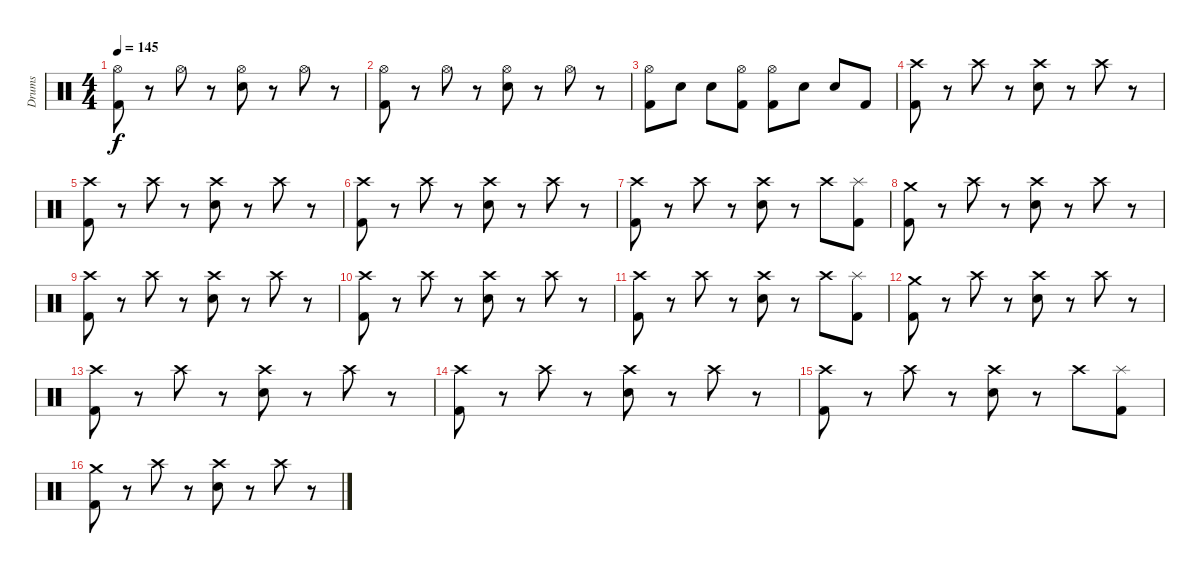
\track ("Drums" "Drums") {instrument percussion}
\staff {score}
\articulation defaults
\ts (4 4)
\tempo 145
\clef neutral
\ks c
("Hi-Hat (open)" "Kick (hit) 2").8{dy f} r.8 "Hi-Hat (open)".8 r.8 ("Hi-Hat (open)" "Electric Snare (hit)").8 r.8 "Hi-Hat (open)".8 r.8 |
("Hi-Hat (open)" "Kick (hit) 2").8 r.8 "Hi-Hat (open)".8 r.8 ("Hi-Hat (open)" "Electric Snare (hit)").8 r.8 "Hi-Hat (open)".8 r.8 |
("Hi-Hat (open)" "Kick (hit) 2").8 "Electric Snare (hit)".8 "Electric Snare (hit)".8 ("Hi-Hat (open)" "Kick (hit) 2").8 ("Hi-Hat (open)" "Kick (hit) 2").8 "Electric Snare (hit)".8 "Electric Snare (hit)".8 "Kick (hit) 2".8 |
("Crash high (hit)" "Kick (hit) 2").8 r.8 "Crash high (hit)".8 r.8 ("Crash high (hit)" "Electric Snare (hit)").8 r.8 "Crash high (hit)".8 r.8 |
("Crash high (hit)" "Kick (hit) 2").8 r.8 "Crash high (hit)".8 r.8 ("Crash high (hit)" "Electric Snare (hit)").8 r.8 "Crash high (hit)".8 r.8 |
("Crash high (hit)" "Kick (hit) 2").8 r.8 "Crash high (hit)".8 r.8 ("Crash high (hit)" "Electric Snare (hit)").8 r.8 "Crash high (hit)".8 r.8 |
("Crash high (hit)" "Kick (hit) 2").8 r.8 "Crash high (hit)".8 r.8 ("Crash high (hit)" "Electric Snare (hit)").8 r.8 "Crash high (hit)".8 ("Splash (hit)" "Kick (hit) 2").8 |
("Crash medium (hit)" "Kick (hit) 2").8 r.8 "Crash high (hit)".8 r.8 ("Crash high (hit)" "Electric Snare (hit)").8 r.8 "Crash high (hit)".8 r.8 |
("Crash high (hit)" "Kick (hit) 2").8 r.8 "Crash high (hit)".8 r.8 ("Crash high (hit)" "Electric Snare (hit)").8 r.8 "Crash high (hit)".8 r.8 |
("Crash high (hit)" "Kick (hit) 2").8 r.8 "Crash high (hit)".8 r.8 ("Crash high (hit)" "Electric Snare (hit)").8 r.8 "Crash high (hit)".8 r.8 |
("Crash high (hit)" "Kick (hit) 2").8 r.8 "Crash high (hit)".8 r.8 ("Crash high (hit)" "Electric Snare (hit)").8 r.8 "Crash high (hit)".8 ("Splash (hit)" "Kick (hit) 2").8 |
("Crash medium (hit)" "Kick (hit) 2").8 r.8 "Crash high (hit)".8 r.8 ("Crash high (hit)" "Electric Snare (hit)").8 r.8 "Crash high (hit)".8 r.8 |
("Crash high (hit)" "Kick (hit) 2").8 r.8 "Crash high (hit)".8 r.8 ("Crash high (hit)" "Electric Snare (hit)").8 r.8 "Crash high (hit)".8 r.8 |
("Crash high (hit)" "Kick (hit) 2").8 r.8 "Crash high (hit)".8 r.8 ("Crash high (hit)" "Electric Snare (hit)").8 r.8 "Crash high (hit)".8 r.8 |
("Crash high (hit)" "Kick (hit) 2").8 r.8 "Crash high (hit)".8 r.8 ("Crash high (hit)" "Electric Snare (hit)").8 r.8 "Crash high (hit)".8 ("Splash (hit)" "Kick (hit) 2").8 |
("Crash medium (hit)" "Kick (hit) 2").8 r.8 "Crash high (hit)".8 r.8 ("Crash high (hit)" "Electric Snare (hit)").8 r.8 "Crash high (hit)".8 r.8
